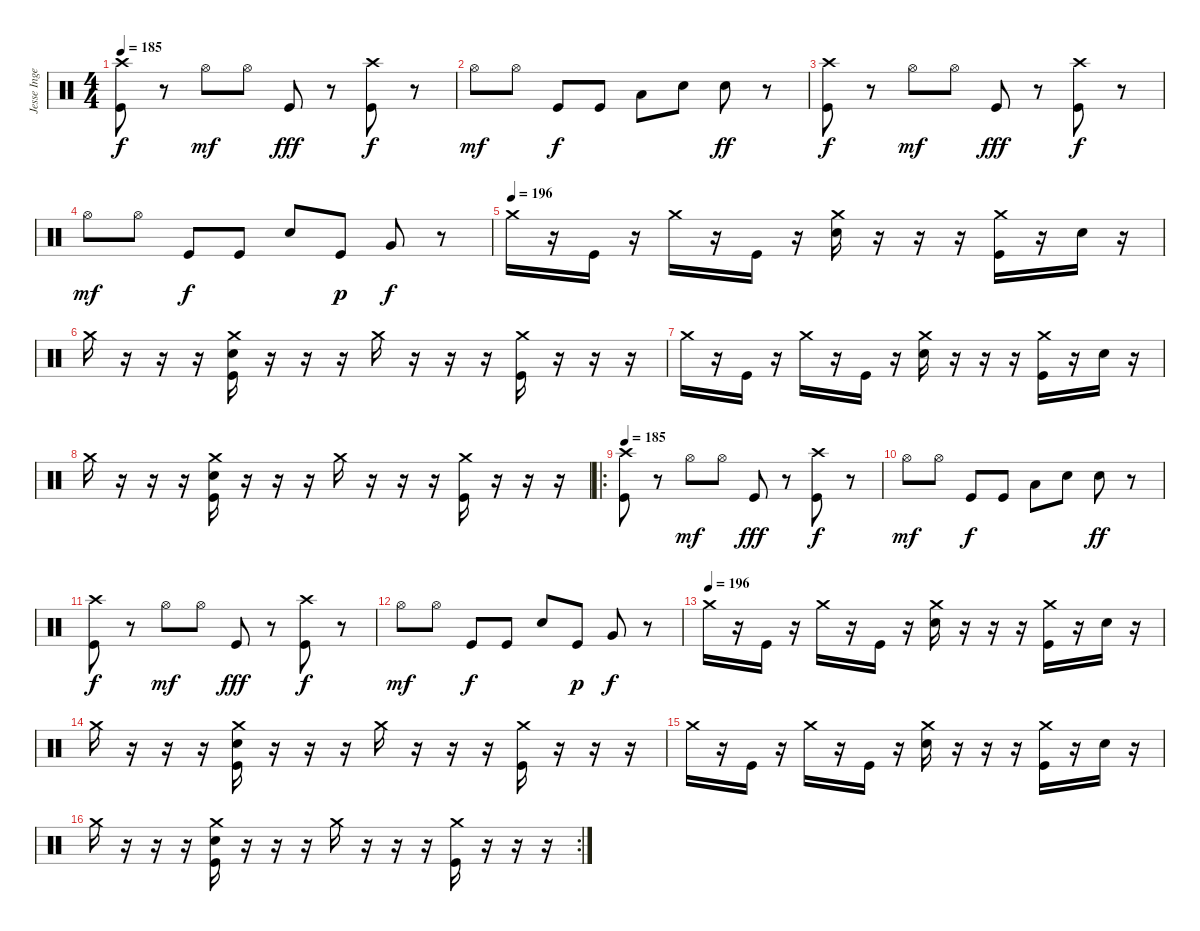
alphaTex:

\track ("Jesse Ingelevics" "Jesse Inge") {instrument percussion}
\staff {score}
\articulation defaults
\ts (4 4)
\tempo 185
\clef neutral
\ks c
("Crash high (hit)" "Kick (hit)").8{dy f} r.8 "Hi-Hat (open)".8{dy mf} "Hi-Hat (open)".8 "Kick (hit)".8{dy fff} r.8 ("Crash high (hit)" "Kick (hit)").8{dy f} r.8 |
"Hi-Hat (open)".8{dy mf} "Hi-Hat (open)".8 "Kick (hit)".8{dy f} "Kick (hit)".8 "Low Tom (hit)".8 "Electric Snare (hit)".8 "Electric Snare (hit)".8{dy ff} r.8 |
("Crash high (hit)" "Kick (hit)").8{dy f} r.8 "Hi-Hat (open)".8{dy mf} "Hi-Hat (open)".8 "Kick (hit)".8{dy fff} r.8 ("Crash high (hit)" "Kick (hit)").8{dy f} r.8 |
"Hi-Hat (open)".8{dy mf} "Hi-Hat (open)".8 "Kick (hit)".8{dy f} "Kick (hit)".8 "Electric Snare (hit)".8 "Kick (hit)".8{dy p} "Very Low Tom (hit)".8{dy f} r.8 |
\tempo (196)
"Crash medium (hit)".16 r.16 "Kick (hit)".16 r.16 "Crash medium (hit)".16 r.16 "Kick (hit)".16 r.16 ("Crash medium (hit)" "Electric Snare (hit)").16 r.16 r.16 r.16 ("Crash medium (hit)" "Kick (hit)").16 r.16 "Electric Snare (hit)".16 r.16 |
"Crash medium (hit)".16 r.16 r.16 r.16 ("Crash medium (hit)" "Electric Snare (hit)" "Kick (hit)").16 r.16 r.16 r.16 "Crash medium (hit)".16 r.16 r.16 r.16 ("Crash medium (hit)" "Kick (hit)").16 r.16 r.16 r.16 |
"Crash medium (hit)".16 r.16 "Kick (hit)".16 r.16 "Crash medium (hit)".16 r.16 "Kick (hit)".16 r.16 ("Crash medium (hit)" "Electric Snare (hit)").16 r.16 r.16 r.16 ("Crash medium (hit)" "Kick (hit)").16 r.16 "Electric Snare (hit)".16 r.16 |
"Crash medium (hit)".16 r.16 r.16 r.16 ("Crash medium (hit)" "Electric Snare (hit)" "Kick (hit)").16 r.16 r.16 r.16 "Crash medium (hit)".16 r.16 r.16 r.16 ("Crash medium (hit)" "Kick (hit)").16 r.16 r.16 r.16 |
\ro
\tempo 185
("Crash high (hit)" "Kick (hit)").8 r.8 "Hi-Hat (open)".8{dy mf} "Hi-Hat (open)".8 "Kick (hit)".8{dy fff} r.8 ("Crash high (hit)" "Kick (hit)").8{dy f} r.8 |
"Hi-Hat (open)".8{dy mf} "Hi-Hat (open)".8 "Kick (hit)".8{dy f} "Kick (hit)".8 "Low Tom (hit)".8 "Electric Snare (hit)".8 "Electric Snare (hit)".8{dy ff} r.8 |
("Crash high (hit)" "Kick (hit)").8{dy f} r.8 "Hi-Hat (open)".8{dy mf} "Hi-Hat (open)".8 "Kick (hit)".8{dy fff} r.8 ("Crash high (hit)" "Kick (hit)").8{dy f} r.8 |
"Hi-Hat (open)".8{dy mf} "Hi-Hat (open)".8 "Kick (hit)".8{dy f} "Kick (hit)".8 "Electric Snare (hit)".8 "Kick (hit)".8{dy p} "Very Low Tom (hit)".8{dy f} r.8 |
\tempo (196)
"Crash medium (hit)".16 r.16 "Kick (hit)".16 r.16 "Crash medium (hit)".16 r.16 "Kick (hit)".16 r.16 ("Crash medium (hit)" "Electric Snare (hit)").16 r.16 r.16 r.16 ("Crash medium (hit)" "Kick (hit)").16 r.16 "Electric Snare (hit)".16 r.16 |
"Crash medium (hit)".16 r.16 r.16 r.16 ("Crash medium (hit)" "Electric Snare (hit)" "Kick (hit)").16 r.16 r.16 r.16 "Crash medium (hit)".16 r.16 r.16 r.16 ("Crash medium (hit)" "Kick (hit)").16 r.16 r.16 r.16 |
"Crash medium (hit)".16 r.16 "Kick (hit)".16 r.16 "Crash medium (hit)".16 r.16 "Kick (hit)".16 r.16 ("Crash medium (hit)" "Electric Snare (hit)").16 r.16 r.16 r.16 ("Crash medium (hit)" "Kick (hit)").16 r.16 "Electric Snare (hit)".16 r.16 |
\rc 2 "Crash medium (hit)".16
r.16 r.16 r.16 ("Crash medium (hit)" "Electric Snare (hit)" "Kick (hit)").16 r.16 r.16 r.16 "Crash medium (hit)".16 r.16 r.16 r.16 ("Crash medium (hit)" "Kick (hit)").16 r.16 r.16 r.16
